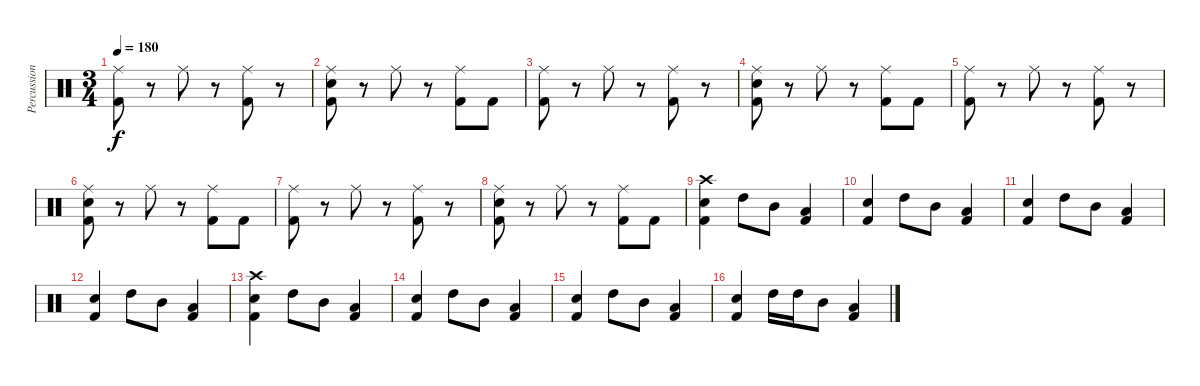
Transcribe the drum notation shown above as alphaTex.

\track ("Percussion" "Percussion") {instrument percussion}
\staff {score}
\articulation defaults
\ts (3 4)
\tempo 180
\clef neutral
\ks c
("Ride (middle)" "Kick (hit) 2").8{dy f} r.8 "Ride (middle)".8 r.8 ("Ride (middle)" "Kick (hit) 2").8 r.8 |
("Ride (middle)" "Snare (hit) 2" "Kick (hit) 2").8 r.8 "Ride (middle)".8 r.8 ("Ride (middle)" "Kick (hit) 2").8 "Kick (hit) 2".8 |
("Ride (middle)" "Kick (hit) 2").8 r.8 "Ride (middle)".8 r.8 ("Ride (middle)" "Kick (hit) 2").8 r.8 |
("Ride (middle)" "Snare (hit) 2" "Kick (hit) 2").8 r.8 "Ride (middle)".8 r.8 ("Ride (middle)" "Kick (hit) 2").8 "Kick (hit) 2".8 |
("Ride (middle)" "Kick (hit) 2").8 r.8 "Ride (middle)".8 r.8 ("Ride (middle)" "Kick (hit) 2").8 r.8 |
("Ride (middle)" "Snare (hit) 2" "Kick (hit) 2").8 r.8 "Ride (middle)".8 r.8 ("Ride (middle)" "Kick (hit) 2").8 "Kick (hit) 2".8 |
("Ride (middle)" "Kick (hit) 2").8 r.8 "Ride (middle)".8 r.8 ("Ride (middle)" "Kick (hit) 2").8 r.8 |
("Ride (middle)" "Snare (hit) 2" "Kick (hit) 2").8 r.8 "Ride (middle)".8 r.8 ("Ride (middle)" "Kick (hit) 2").8 "Kick (hit) 2".8 |
("Crash high (hit)" "Snare (hit) 2" "Kick (hit) 2").4 "High Tom (hit)".8 "Mid Tom (hit)".8 ("Low Tom (hit)" "Kick (hit) 2").4 |
("Snare (hit) 2" "Kick (hit) 2").4 "High Tom (hit)".8 "Mid Tom (hit)".8 ("Low Tom (hit)" "Kick (hit) 2").4 |
("Snare (hit) 2" "Kick (hit) 2").4 "High Tom (hit)".8 "Mid Tom (hit)".8 ("Low Tom (hit)" "Kick (hit) 2").4 |
("Snare (hit) 2" "Kick (hit) 2").4 "High Tom (hit)".8 "Mid Tom (hit)".8 ("Low Tom (hit)" "Kick (hit) 2").4 |
("Crash high (hit)" "Snare (hit) 2" "Kick (hit) 2").4 "High Tom (hit)".8 "Mid Tom (hit)".8 ("Low Tom (hit)" "Kick (hit) 2").4 |
("Snare (hit) 2" "Kick (hit) 2").4 "High Tom (hit)".8 "Mid Tom (hit)".8 ("Low Tom (hit)" "Kick (hit) 2").4 |
("Snare (hit) 2" "Kick (hit) 2").4 "High Tom (hit)".8 "Mid Tom (hit)".8 ("Low Tom (hit)" "Kick (hit) 2").4 |
("Snare (hit) 2" "Kick (hit) 2").4 "High Tom (hit)".16 "High Tom (hit)".16 "Mid Tom (hit)".8 ("Low Tom (hit)" "Kick (hit) 2").4
